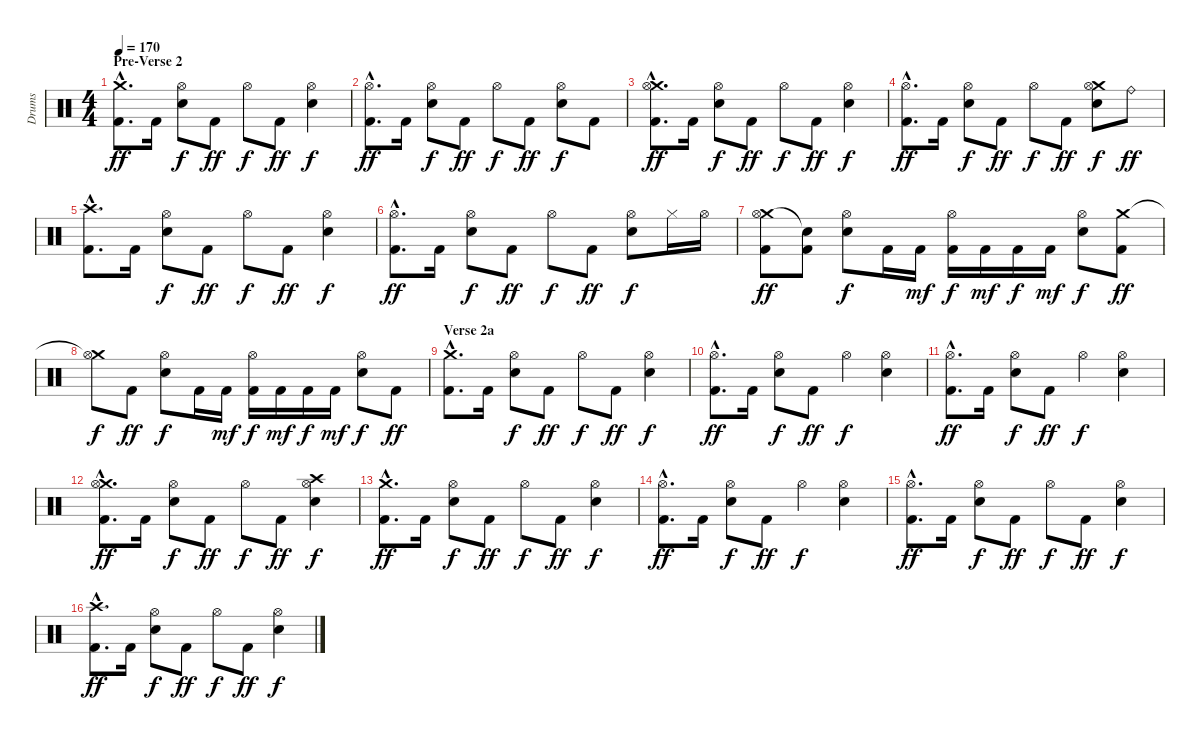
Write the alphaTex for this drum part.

\track ("Drums" "Drums") {instrument percussion}
\staff {score}
\articulation defaults
\ts (4 4)
\section ("" "Pre-Verse 2")
\tempo 170
\clef neutral
\ks c
("Crash medium (hit)"{hac} "Kick (hit) 2"{hac}).8{d dy ff} "Kick (hit) 2".16 ("Hi-Hat (open)" "Snare (hit) 2").8{dy f} "Kick (hit) 2".8{dy ff} "Hi-Hat (open)".8{dy f} "Kick (hit) 2".8{dy ff} ("Hi-Hat (open)" "Snare (hit) 2").4{dy f} |
("Hi-Hat (open)"{hac} "Kick (hit) 2"{hac}).8{d dy ff} "Kick (hit) 2".16 ("Hi-Hat (open)" "Snare (hit) 2").8{dy f} "Kick (hit) 2".8{dy ff} "Hi-Hat (open)".8{dy f} "Kick (hit) 2".8{dy ff} ("Hi-Hat (open)" "Snare (hit) 2").8{dy f} "Kick (hit) 2".8 |
("Crash medium (hit)"{hac} "Hi-Hat (open)"{hac} "Kick (hit) 2"{hac}).8{d dy ff} "Kick (hit) 2".16 ("Hi-Hat (open)" "Snare (hit) 2").8{dy f} "Kick (hit) 2".8{dy ff} "Hi-Hat (open)".8{dy f} "Kick (hit) 2".8{dy ff} ("Hi-Hat (open)" "Snare (hit) 2").4{dy f} |
("Hi-Hat (open)"{hac} "Kick (hit) 2"{hac}).8{d dy ff} "Kick (hit) 2".16 ("Hi-Hat (open)" "Snare (hit) 2").8{dy f} "Kick (hit) 2".8{dy ff} "Hi-Hat (open)".8{dy f} "Kick (hit) 2".8{dy ff} ("Crash medium (hit)" "Hi-Hat (open)" "Snare (hit) 2").8{dy f} "Ride (bell)".8{dy ff} |
("Crash high (hit)"{hac} "Kick (hit) 2"{hac}).8{d} "Kick (hit) 2".16 ("Hi-Hat (open)" "Snare (hit) 2").8{dy f} "Kick (hit) 2".8{dy ff} "Hi-Hat (open)".8{dy f} "Kick (hit) 2".8{dy ff} ("Hi-Hat (open)" "Snare (hit) 2").4{dy f} |
("Hi-Hat (open)"{hac} "Kick (hit) 2"{hac}).8{d dy ff} "Kick (hit) 2".16 ("Hi-Hat (open)" "Snare (hit) 2").8{dy f} "Kick (hit) 2".8{dy ff} "Hi-Hat (open)".8{dy f} "Kick (hit) 2".8{dy ff} ("Hi-Hat (open)" "Snare (hit) 2").8{dy f} "Hi-Hat (closed)".16 "Hi-Hat (open)".16 |
("Crash medium (hit)" "Hi-Hat (open)" "Kick (hit) 2").8{dy ff} ("Snare (hit)"{t} "Kick (hit) 2").8 ("Hi-Hat (open)" "Snare (hit) 2").8{dy f} "Kick (hit) 2".16 "Kick (hit) 2".16{dy mf} ("Hi-Hat (open)" "Kick (hit) 2").16{dy f} "Kick (hit) 2".16{dy mf} "Kick (hit) 2".16{dy f} "Kick (hit) 2".16{dy mf} ("Hi-Hat (open)" "Snare (hit) 2").8{dy f} ("Crash medium (hit)" "Kick (hit) 2").8{dy ff} |
("Crash medium (hit)"{t} "Hi-Hat (open)").8{dy f} "Kick (hit) 2".8{dy ff} ("Hi-Hat (open)" "Snare (hit) 2").8{dy f} "Kick (hit) 2".16 "Kick (hit) 2".16{dy mf} ("Hi-Hat (open)" "Kick (hit) 2").16{dy f} "Kick (hit) 2".16{dy mf} "Kick (hit) 2".16{dy f} "Kick (hit) 2".16{dy mf} ("Hi-Hat (open)" "Snare (hit) 2").8{dy f} "Kick (hit) 2".8{dy ff} |
\section ("" "Verse 2a")
("Crash medium (hit)"{hac} "Kick (hit) 2"{hac}).8{d} "Kick (hit) 2".16 ("Hi-Hat (open)" "Snare (hit) 2").8{dy f} "Kick (hit) 2".8{dy ff} "Hi-Hat (open)".8{dy f} "Kick (hit) 2".8{dy ff} ("Hi-Hat (open)" "Snare (hit) 2").4{dy f} |
("Hi-Hat (open)"{hac} "Kick (hit) 2"{hac}).8{d dy ff} "Kick (hit) 2".16 ("Hi-Hat (open)" "Snare (hit) 2").8{dy f} "Kick (hit) 2".8{dy ff} "Hi-Hat (open)".4{dy f} ("Hi-Hat (open)" "Snare (hit) 2").4 |
("Hi-Hat (open)"{hac} "Kick (hit) 2"{hac}).8{d dy ff} "Kick (hit) 2".16 ("Hi-Hat (open)" "Snare (hit) 2").8{dy f} "Kick (hit) 2".8{dy ff} "Hi-Hat (open)".4{dy f} ("Hi-Hat (open)" "Snare (hit) 2").4 |
("Crash medium (hit)"{hac} "Hi-Hat (open)"{hac} "Kick (hit) 2"{hac}).8{d dy ff} "Kick (hit) 2".16 ("Hi-Hat (open)" "Snare (hit) 2").8{dy f} "Kick (hit) 2".8{dy ff} "Hi-Hat (open)".8{dy f} "Kick (hit) 2".8{dy ff} ("Crash high (hit)" "Hi-Hat (open)" "Snare (hit) 2").4{dy f} |
("Crash medium (hit)"{hac} "Kick (hit) 2"{hac}).8{d dy ff} "Kick (hit) 2".16 ("Hi-Hat (open)" "Snare (hit) 2").8{dy f} "Kick (hit) 2".8{dy ff} "Hi-Hat (open)".8{dy f} "Kick (hit) 2".8{dy ff} ("Hi-Hat (open)" "Snare (hit) 2").4{dy f} |
("Hi-Hat (open)"{hac} "Kick (hit) 2"{hac}).8{d dy ff} "Kick (hit) 2".16 ("Hi-Hat (open)" "Snare (hit) 2").8{dy f} "Kick (hit) 2".8{dy ff} "Hi-Hat (open)".4{dy f} ("Hi-Hat (open)" "Snare (hit) 2").4 |
("Hi-Hat (open)"{hac} "Kick (hit) 2"{hac}).8{d dy ff} "Kick (hit) 2".16 ("Hi-Hat (open)" "Snare (hit) 2").8{dy f} "Kick (hit) 2".8{dy ff} "Hi-Hat (open)".8{dy f} "Kick (hit) 2".8{dy ff} ("Hi-Hat (open)" "Snare (hit) 2").4{dy f} |
("Crash high (hit)"{hac} "Kick (hit) 2"{hac}).8{d dy ff} "Kick (hit) 2".16 ("Hi-Hat (open)" "Snare (hit) 2").8{dy f} "Kick (hit) 2".8{dy ff} "Hi-Hat (open)".8{dy f} "Kick (hit) 2".8{dy ff} ("Hi-Hat (open)" "Snare (hit) 2").4{dy f}
